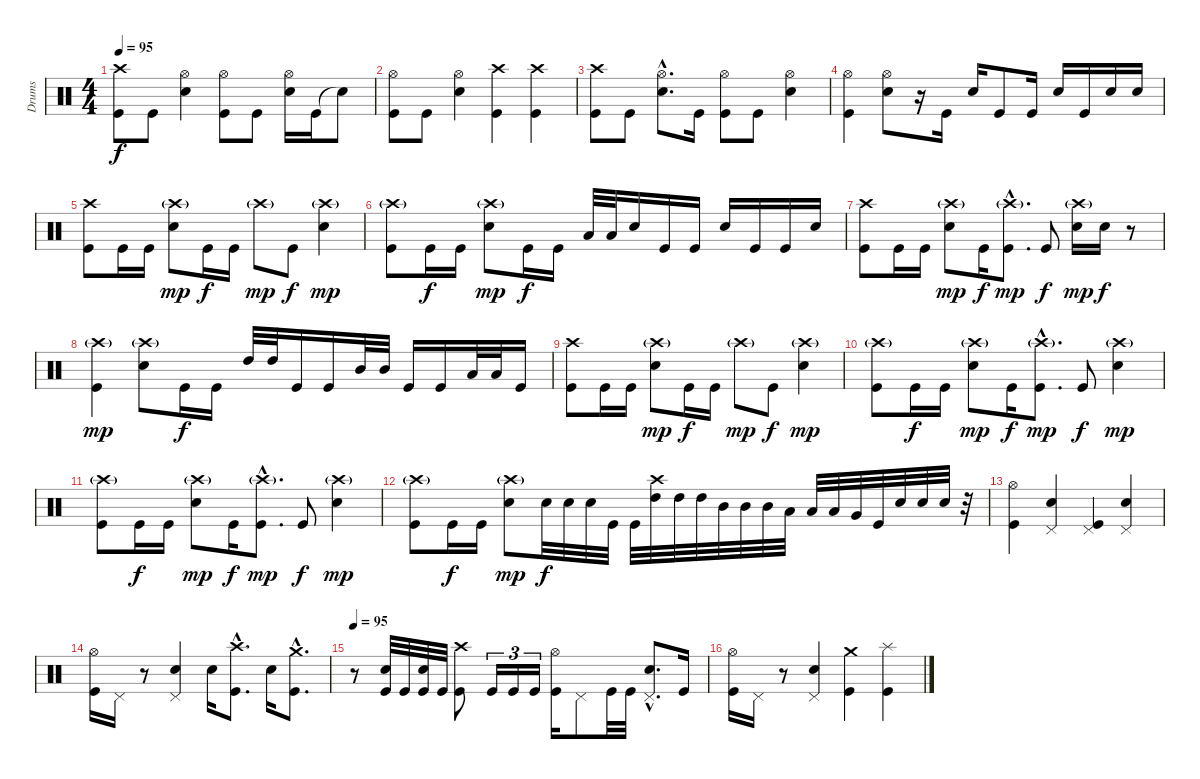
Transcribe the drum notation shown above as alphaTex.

\track ("Drums" "Drums") {instrument percussion}
\staff {score}
\articulation defaults
\ts (4 4)
\tempo 95
\clef neutral
\ks c
("Crash high (hit)" "Kick (hit)").8{dy f} "Kick (hit)".8 ("Hi-Hat (open)" "Electric Snare (hit)").4 ("Hi-Hat (open)" "Kick (hit)").8 "Kick (hit)".8 ("Hi-Hat (open)" "Electric Snare (hit)").16 "Kick (hit)".16 "Snare (hit)"{t}.8 |
("Hi-Hat (open)" "Kick (hit)").8 "Kick (hit)".8 ("Hi-Hat (open)" "Electric Snare (hit)").4 ("Crash high (hit)" "Kick (hit)").4 ("Crash high (hit)" "Kick (hit)").4 |
("Crash high (hit)" "Kick (hit)").8 "Kick (hit)".8 ("Hi-Hat (open)"{hac} "Electric Snare (hit)"{hac}).8{d} "Kick (hit)".16 ("Hi-Hat (open)" "Kick (hit)").8 "Kick (hit)".8 ("Hi-Hat (open)" "Electric Snare (hit)").4 |
("Hi-Hat (open)" "Kick (hit)").4 ("Hi-Hat (open)" "Electric Snare (hit)").8 r.16 "Kick (hit)".16 "Electric Snare (hit)".16 "Kick (hit)".8 "Kick (hit)".16 "Electric Snare (hit)".16 "Kick (hit)".16 "Electric Snare (hit)".16 "Electric Snare (hit)".16 |
("Crash high (hit)" "Kick (hit)").8 "Kick (hit)".16 "Kick (hit)".16 ("Crash high (hit)"{g} "Electric Snare (hit)").8{dy mp} "Kick (hit)".16{dy f} "Kick (hit)".16 "Crash high (hit)"{g}.8{dy mp} "Kick (hit)".8{dy f} ("Crash high (hit)"{g} "Electric Snare (hit)").4{dy mp} |
("Crash high (hit)"{g} "Kick (hit)").8 "Kick (hit)".16{dy f} "Kick (hit)".16 ("Crash high (hit)"{g} "Electric Snare (hit)").8{dy mp} "Kick (hit)".16{dy f} "Kick (hit)".16 "Low Tom (hit)".32 "Low Tom (hit)".32 "Electric Snare (hit)".16 "Kick (hit)".16 "Kick (hit)".16 "Electric Snare (hit)".16 "Kick (hit)".16 "Kick (hit)".16 "Electric Snare (hit)".16 |
("Crash high (hit)" "Kick (hit)").8 "Kick (hit)".16 "Kick (hit)".16 ("Crash high (hit)"{g} "Electric Snare (hit)").8{dy mp} "Kick (hit)".16{dy f} ("Crash high (hit)"{g hac} "Kick (hit)"{hac}).8{d dy mp} "Kick (hit)".8{dy f} ("Crash high (hit)"{g} "Electric Snare (hit)").16{dy mp} "Electric Snare (hit)".16{dy f} r.8 |
("Crash high (hit)"{g} "Kick (hit)").4{dy mp} ("Crash high (hit)"{g} "Electric Snare (hit)").8 "Kick (hit)".16{dy f} "Kick (hit)".16 "High Tom (hit)".32 "High Tom (hit)".32 "Kick (hit)".16 "Kick (hit)".16 "Mid Tom (hit)".32 "Mid Tom (hit)".32 "Kick (hit)".16 "Kick (hit)".16 "Low Tom (hit)".32 "Low Tom (hit)".32 "Kick (hit)".16 |
("Crash high (hit)" "Kick (hit)").8 "Kick (hit)".16 "Kick (hit)".16 ("Crash high (hit)"{g} "Electric Snare (hit)").8{dy mp} "Kick (hit)".16{dy f} "Kick (hit)".16 "Crash high (hit)"{g}.8{dy mp} "Kick (hit)".8{dy f} ("Crash high (hit)"{g} "Electric Snare (hit)").4{dy mp} |
("Crash high (hit)"{g} "Kick (hit)").8 "Kick (hit)".16{dy f} "Kick (hit)".16 ("Crash high (hit)"{g} "Electric Snare (hit)").8{dy mp} "Kick (hit)".16{dy f} ("Crash high (hit)"{g hac} "Kick (hit)"{hac}).8{d dy mp} "Kick (hit)".8{dy f} ("Crash high (hit)"{g} "Electric Snare (hit)").4{dy mp} |
("Crash high (hit)"{g} "Kick (hit)").8 "Kick (hit)".16{dy f} "Kick (hit)".16 ("Crash high (hit)"{g} "Electric Snare (hit)").8{dy mp} "Kick (hit)".16{dy f} ("Crash high (hit)"{g hac} "Kick (hit)"{hac}).8{d dy mp} "Kick (hit)".8{dy f} ("Crash high (hit)"{g} "Electric Snare (hit)").4{dy mp} |
("Crash high (hit)"{g} "Kick (hit)").8 "Kick (hit)".16{dy f} "Kick (hit)".16 ("Crash high (hit)"{g} "Electric Snare (hit)").8{dy mp} "Electric Snare (hit)".32{dy f} "Electric Snare (hit)".32 "Electric Snare (hit)".32 "Kick (hit)".32 "Kick (hit)".32 ("Crash high (hit)" "High Tom (hit)").32 "High Tom (hit)".32 "High Tom (hit)".32 "Mid Tom (hit)".32 "Mid Tom (hit)".32 "Mid Tom (hit)".32 "Low Tom (hit)".32 "Low Tom (hit)".32 "Low Tom (hit)".32 "Very Low Tom (hit)".32 "Kick (hit)".32 "Electric Snare (hit)".32 "Electric Snare (hit)".32 "Electric Snare (hit)".32 r.32 |
("Hi-Hat (open)" "Kick (hit)").4 ("Pedal Hi-Hat (hit)" "Electric Snare (hit)").4 ("Pedal Hi-Hat (hit)" "Kick (hit)").4 ("Pedal Hi-Hat (hit)" "Electric Snare (hit)").4 |
("Hi-Hat (open)" "Kick (hit)").16 "Pedal Hi-Hat (hit)".16 r.8 ("Pedal Hi-Hat (hit)" "Electric Snare (hit)").4 "Electric Snare (hit)".16 ("Crash high (hit)"{hac} "Kick (hit)"{hac}).8{d} "Electric Snare (hit)".16 ("Crash medium (hit)"{hac} "Kick (hit)"{hac}).8{d} |
\tempo 95
r.8 ("Electric Snare (hit)" "Kick (hit)").32 "Kick (hit)".32 ("Electric Snare (hit)" "Kick (hit)").32 "Kick (hit)".32 ("Crash high (hit)" "Kick (hit)").8 "Kick (hit)".16{tu (3 2)} "Kick (hit)".16{tu (3 2)} "Kick (hit)".16{tu (3 2)} ("Hi-Hat (open)" "Kick (hit)").16 "Pedal Hi-Hat (hit)".8 "Kick (hit)".32 "Kick (hit)".32 ("Pedal Hi-Hat (hit)"{hac} "Electric Snare (hit)"{hac}).8{d} "Kick (hit)".16 |
("Hi-Hat (open)" "Kick (hit)").16 "Pedal Hi-Hat (hit)".16 r.8 ("Pedal Hi-Hat (hit)" "Electric Snare (hit)").4 ("Crash medium (hit)" "Kick (hit)").4 ("Splash (hit)" "Kick (hit)").4
